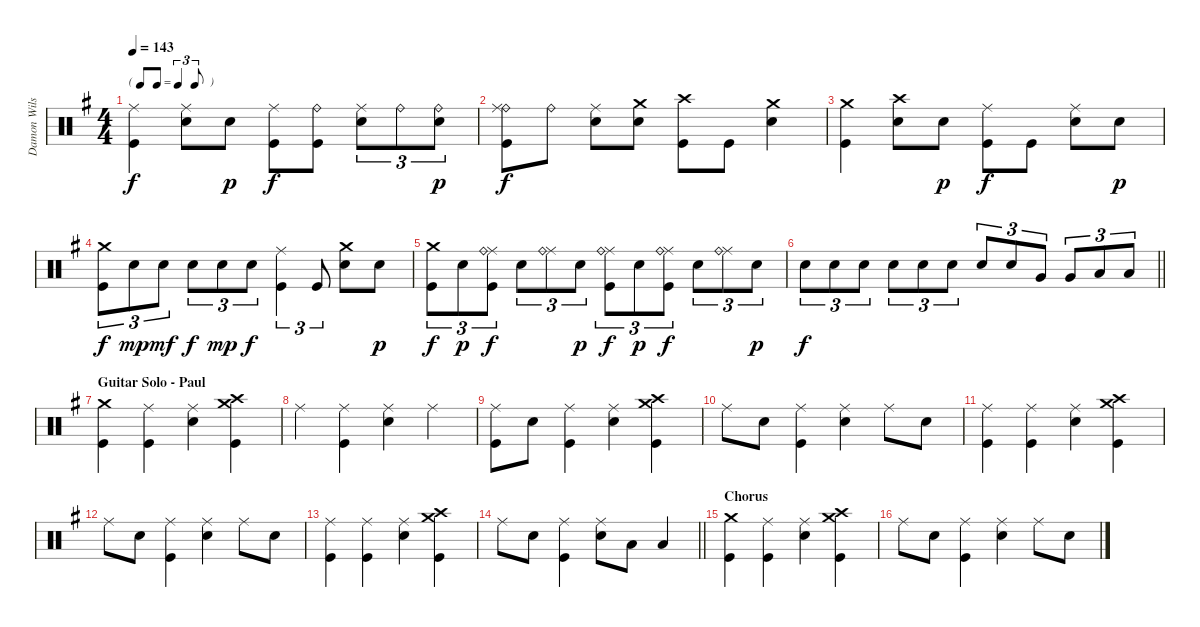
\track ("Damon Wilson" "Damon Wils") {instrument percussion}
\staff {score}
\articulation defaults
\ts (4 4)
\tf triplet8th
\tempo 143
\clef neutral
\ks g
("Ride (middle)" "Kick (hit)").4{dy f} ("Ride (middle)" "Electric Snare (hit)").8 "Electric Snare (hit)".8{dy p} ("Ride (middle)" "Kick (hit)").8{dy f} ("Ride (bell)" "Kick (hit)").8 ("Ride (middle)" "Electric Snare (hit)").8{tu (3 2)} "Ride (bell)".8{tu (3 2)} ("Ride (bell)" "Electric Snare (hit)").8{tu (3 2) dy p} |
("Ride (bell)" "Ride (middle)" "Kick (hit)").8{dy f} "Ride (bell)".8 ("Ride (middle)" "Electric Snare (hit)").8 ("Crash medium (hit)" "Electric Snare (hit)").8 ("Crash high (hit)" "Kick (hit)").8 "Kick (hit)".8 ("Crash medium (hit)" "Electric Snare (hit)").4 |
("Crash medium (hit)" "Kick (hit)").4 ("Crash high (hit)" "Electric Snare (hit)").8 "Electric Snare (hit)".8{dy p} ("Ride (middle)" "Kick (hit)").8{dy f} "Kick (hit)".8 ("Ride (middle)" "Electric Snare (hit)").8 "Electric Snare (hit)".8{dy p} |
("Crash medium (hit)" "Kick (hit)").8{tu (3 2) dy f} "Electric Snare (hit)".8{tu (3 2) dy mp} "Electric Snare (hit)".8{tu (3 2) dy mf} "Electric Snare (hit)".8{tu (3 2) dy f} "Electric Snare (hit)".8{tu (3 2) dy mp} "Electric Snare (hit)".8{tu (3 2) dy f} ("Ride (middle)" "Kick (hit)").4{tu (3 2)} "Kick (hit)".8{tu (3 2)} ("Crash medium (hit)" "Electric Snare (hit)").8 "Electric Snare (hit)".8{dy p} |
("Crash medium (hit)" "Kick (hit)").8{tu (3 2) dy f} "Electric Snare (hit)".8{tu (3 2) dy p} ("Ride (middle)" "Ride (bell)" "Kick (hit)").8{tu (3 2) dy f} "Electric Snare (hit)".8{tu (3 2)} ("Ride (middle)" "Ride (bell)").8{tu (3 2)} "Electric Snare (hit)".8{tu (3 2) dy p} ("Ride (middle)" "Ride (bell)" "Kick (hit)").8{tu (3 2) dy f} "Electric Snare (hit)".8{tu (3 2) dy p} ("Ride (middle)" "Ride (bell)" "Kick (hit)").8{tu (3 2) dy f} "Electric Snare (hit)".8{tu (3 2)} ("Ride (middle)" "Ride (bell)").8{tu (3 2)} "Electric Snare (hit)".8{tu (3 2) dy p} |
\barLineRight lightlight "Electric Snare (hit)".8{tu (3 2) dy f} "Electric Snare (hit)".8{tu (3 2)} "Electric Snare (hit)".8{tu (3 2)} "Electric Snare (hit)".8{tu (3 2)} "Electric Snare (hit)".8{tu (3 2)} "Electric Snare (hit)".8{tu (3 2)} "Electric Snare (hit)".8{tu (3 2)} "Electric Snare (hit)".8{tu (3 2)} "Very Low Tom (hit)".8{tu (3 2)} "Very Low Tom (hit)".8{tu (3 2)} "Low Floor Tom (hit)".8{tu (3 2)} "Low Floor Tom (hit)".8{tu (3 2)}
|
\section ("" "Guitar Solo - Paul")
("Crash medium (hit)" "Kick (hit)").4 ("Ride (middle)" "Kick (hit)").4 ("Ride (middle)" "Electric Snare (hit)").4 ("Crash high (hit)" "Crash medium (hit)" "Kick (hit)").4 |
"Ride (middle)".4 ("Ride (middle)" "Kick (hit)").4 ("Ride (middle)" "Electric Snare (hit)").4 "Ride (middle)".4 |
("Ride (middle)" "Kick (hit)").8 "Electric Snare (hit)".8 ("Ride (middle)" "Kick (hit)").4 ("Ride (middle)" "Electric Snare (hit)").4 ("Crash high (hit)" "Crash medium (hit)" "Kick (hit)").4 |
"Ride (middle)".8 "Electric Snare (hit)".8 ("Ride (middle)" "Kick (hit)").4 ("Ride (middle)" "Electric Snare (hit)").4 "Ride (middle)".8 "Electric Snare (hit)".8 |
("Ride (middle)" "Kick (hit)").4 ("Ride (middle)" "Kick (hit)").4 ("Ride (middle)" "Electric Snare (hit)").4 ("Crash high (hit)" "Crash medium (hit)" "Kick (hit)").4 |
"Ride (middle)".8 "Electric Snare (hit)".8 ("Ride (middle)" "Kick (hit)").4 ("Ride (middle)" "Electric Snare (hit)").4 "Ride (middle)".8 "Electric Snare (hit)".8 |
("Ride (middle)" "Kick (hit)").4 ("Ride (middle)" "Kick (hit)").4 ("Ride (middle)" "Electric Snare (hit)").4 ("Crash high (hit)" "Crash medium (hit)" "Kick (hit)").4 |
\barLineRight lightlight "Ride (middle)".8 "Electric Snare (hit)".8
("Ride (middle)" "Kick (hit)").4 ("Ride (middle)" "Electric Snare (hit)").8 "Low Tom (hit)".8 "Low Floor Tom (hit)".4 |
\section ("" "Chorus")
("Crash medium (hit)" "Kick (hit)").4 ("Ride (middle)" "Kick (hit)").4 ("Ride (middle)" "Electric Snare (hit)").4 ("Crash high (hit)" "Crash medium (hit)" "Kick (hit)").4 |
"Ride (middle)".8 "Electric Snare (hit)".8 ("Ride (middle)" "Kick (hit)").4 ("Ride (middle)" "Electric Snare (hit)").4 "Ride (middle)".8 "Electric Snare (hit)".8
